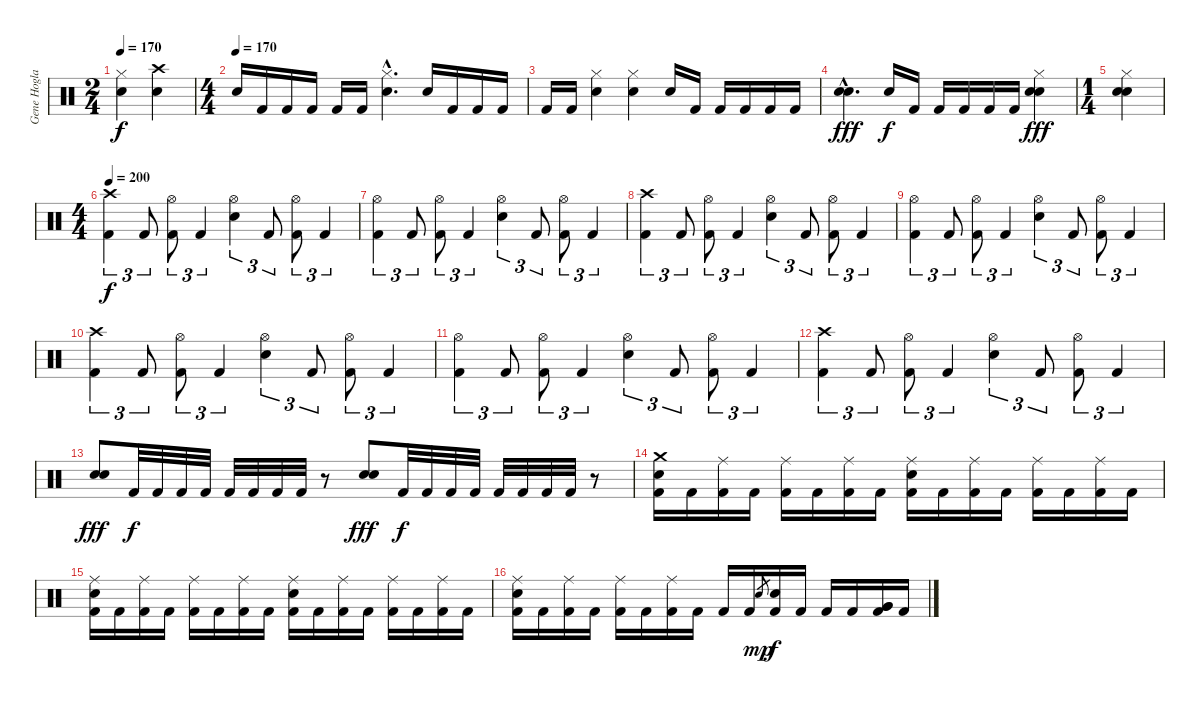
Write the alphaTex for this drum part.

\track ("Gene Hoglan" "Gene Hogla") {instrument percussion}
\staff {score}
\articulation defaults
\ts (2 4)
\tempo 170
\clef neutral
\ks c
("Hi-Hat (closed)" "Snare (hit) 2").4{dy f} ("Crash high (hit)" "Snare (hit) 2").4 |
\ts (4 4)
\tempo (170)
"Snare (hit) 2".16 "Kick (hit) 2".16 "Kick (hit) 2".16 "Kick (hit) 2".16 "Kick (hit) 2".16 "Kick (hit) 2".16 ("Hi-Hat (closed)"{hac} "Snare (hit) 2"{hac}).4{d} "Snare (hit) 2".16 "Kick (hit) 2".16 "Kick (hit) 2".16 "Kick (hit) 2".16 |
"Kick (hit) 2".16 "Kick (hit) 2".16 ("Hi-Hat (closed)" "Snare (hit) 2").4 ("Hi-Hat (closed)" "Snare (hit) 2").4 "Snare (hit) 2".16 "Kick (hit) 2".16 "Kick (hit) 2".16 "Kick (hit) 2".16 "Kick (hit) 2".16 "Kick (hit) 2".16 |
("Snare (hit) 2"{hac} "Snare (hit) 2"{hac}).4{d dy fff} "Snare (hit) 2".16{dy f} "Kick (hit) 2".16 "Kick (hit) 2".16 "Kick (hit) 2".16 "Kick (hit) 2".16 "Kick (hit) 2".16 ("Hi-Hat (closed)" "Snare (hit) 2" "Snare (hit) 2").4{dy fff} |
\ts (1 4)
("Hi-Hat (closed)" "Snare (hit) 2" "Snare (hit) 2").4 |
\ts (4 4)
\tempo 200
("Crash high (hit)" "Kick (hit) 2").4{tu (3 2) dy f} "Kick (hit) 2".8{tu (3 2)} ("Hi-Hat (open)" "Kick (hit) 2").8{tu (3 2)} "Kick (hit) 2".4{tu (3 2)} ("Hi-Hat (open)" "Snare (hit) 2").4{tu (3 2)} "Kick (hit) 2".8{tu (3 2)} ("Hi-Hat (open)" "Kick (hit) 2").8{tu (3 2)} "Kick (hit) 2".4{tu (3 2)} |
("Hi-Hat (open)" "Kick (hit) 2").4{tu (3 2)} "Kick (hit) 2".8{tu (3 2)} ("Hi-Hat (open)" "Kick (hit) 2").8{tu (3 2)} "Kick (hit) 2".4{tu (3 2)} ("Hi-Hat (open)" "Snare (hit) 2").4{tu (3 2)} "Kick (hit) 2".8{tu (3 2)} ("Hi-Hat (open)" "Kick (hit) 2").8{tu (3 2)} "Kick (hit) 2".4{tu (3 2)} |
("Crash high (hit)" "Kick (hit) 2").4{tu (3 2)} "Kick (hit) 2".8{tu (3 2)} ("Hi-Hat (open)" "Kick (hit) 2").8{tu (3 2)} "Kick (hit) 2".4{tu (3 2)} ("Hi-Hat (open)" "Snare (hit) 2").4{tu (3 2)} "Kick (hit) 2".8{tu (3 2)} ("Hi-Hat (open)" "Kick (hit) 2").8{tu (3 2)} "Kick (hit) 2".4{tu (3 2)} |
("Hi-Hat (open)" "Kick (hit) 2").4{tu (3 2)} "Kick (hit) 2".8{tu (3 2)} ("Hi-Hat (open)" "Kick (hit) 2").8{tu (3 2)} "Kick (hit) 2".4{tu (3 2)} ("Hi-Hat (open)" "Snare (hit) 2").4{tu (3 2)} "Kick (hit) 2".8{tu (3 2)} ("Hi-Hat (open)" "Kick (hit) 2").8{tu (3 2)} "Kick (hit) 2".4{tu (3 2)} |
("Crash high (hit)" "Kick (hit) 2").4{tu (3 2)} "Kick (hit) 2".8{tu (3 2)} ("Hi-Hat (open)" "Kick (hit) 2").8{tu (3 2)} "Kick (hit) 2".4{tu (3 2)} ("Hi-Hat (open)" "Snare (hit) 2").4{tu (3 2)} "Kick (hit) 2".8{tu (3 2)} ("Hi-Hat (open)" "Kick (hit) 2").8{tu (3 2)} "Kick (hit) 2".4{tu (3 2)} |
("Hi-Hat (open)" "Kick (hit) 2").4{tu (3 2)} "Kick (hit) 2".8{tu (3 2)} ("Hi-Hat (open)" "Kick (hit) 2").8{tu (3 2)} "Kick (hit) 2".4{tu (3 2)} ("Hi-Hat (open)" "Snare (hit) 2").4{tu (3 2)} "Kick (hit) 2".8{tu (3 2)} ("Hi-Hat (open)" "Kick (hit) 2").8{tu (3 2)} "Kick (hit) 2".4{tu (3 2)} |
("Crash high (hit)" "Kick (hit) 2").4{tu (3 2)} "Kick (hit) 2".8{tu (3 2)} ("Hi-Hat (open)" "Kick (hit) 2").8{tu (3 2)} "Kick (hit) 2".4{tu (3 2)} ("Hi-Hat (open)" "Snare (hit) 2").4{tu (3 2)} "Kick (hit) 2".8{tu (3 2)} ("Hi-Hat (open)" "Kick (hit) 2").8{tu (3 2)} "Kick (hit) 2".4{tu (3 2)} |
("Snare (hit) 2" "Snare (hit) 2").8{dy fff} "Kick (hit) 2".32{dy f} "Kick (hit) 2".32 "Kick (hit) 2".32 "Kick (hit) 2".32 "Kick (hit) 2".32 "Kick (hit) 2".32 "Kick (hit) 2".32 "Kick (hit) 2".32 r.8 ("Snare (hit) 2" "Snare (hit) 2").8{dy fff} "Kick (hit) 2".32{dy f} "Kick (hit) 2".32 "Kick (hit) 2".32 "Kick (hit) 2".32 "Kick (hit) 2".32 "Kick (hit) 2".32 "Kick (hit) 2".32 "Kick (hit) 2".32 r.8 |
("Crash medium (hit)" "Snare (hit) 2" "Kick (hit) 2").16 "Kick (hit) 2".16 ("Ride (middle)" "Kick (hit) 2").16 "Kick (hit) 2".16 ("Ride (middle)" "Kick (hit) 2").16 "Kick (hit) 2".16 ("Ride (middle)" "Kick (hit) 2").16 "Kick (hit) 2".16 ("Ride (middle)" "Snare (hit) 2" "Kick (hit) 2").16 "Kick (hit) 2".16 ("Ride (middle)" "Kick (hit) 2").16 "Kick (hit) 2".16 ("Ride (middle)" "Kick (hit) 2").16 "Kick (hit) 2".16 ("Ride (middle)" "Kick (hit) 2").16 "Kick (hit) 2".16 |
("Ride (middle)" "Snare (hit) 2" "Kick (hit) 2").16 "Kick (hit) 2".16 ("Ride (middle)" "Kick (hit) 2").16 "Kick (hit) 2".16 ("Ride (middle)" "Kick (hit) 2").16 "Kick (hit) 2".16 ("Ride (middle)" "Kick (hit) 2").16 "Kick (hit) 2".16 ("Ride (middle)" "Snare (hit) 2" "Kick (hit) 2").16 "Kick (hit) 2".16 ("Ride (middle)" "Kick (hit) 2").16 "Kick (hit) 2".16 ("Ride (middle)" "Kick (hit) 2").16 "Kick (hit) 2".16 ("Ride (middle)" "Kick (hit) 2").16 "Kick (hit) 2".16 |
("Ride (middle)" "Snare (hit) 2" "Kick (hit) 2").16 "Kick (hit) 2".16 ("Ride (middle)" "Kick (hit) 2").16 "Kick (hit) 2".16 ("Ride (middle)" "Kick (hit) 2").16 "Kick (hit) 2".16 ("Ride (middle)" "Kick (hit) 2").16 "Kick (hit) 2".16 "Kick (hit) 2".16 "Kick (hit) 2".16 "Snare (hit) 2".8{gr dy mp} ("Snare (hit) 2" "Kick (hit) 2").16{dy f} "Kick (hit) 2".16 "Kick (hit) 2".16 "Kick (hit) 2".16 ("Very Low Tom (hit)" "Very Low Tom (hit)" "Kick (hit) 2").16 "Kick (hit) 2".16
